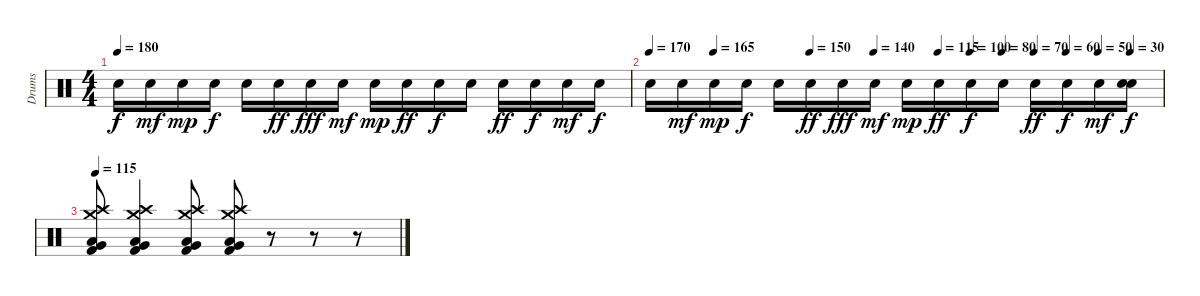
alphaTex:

\track ("Drums" "Drums") {instrument percussion}
\staff {score}
\articulation defaults
\ts (4 4)
\tempo 180
\clef neutral
\ks c "Snare (hit) 2".16{dy f} "Snare (hit) 2".16{dy mf} "Snare (hit) 2".16{dy mp} "Snare (hit) 2".16{dy f} "Snare (hit) 2".16 "Snare (hit) 2".16{dy ff} "Snare (hit) 2".16{dy fff} "Snare (hit) 2".16{dy mf} "Snare (hit) 2".16{dy mp} "Snare (hit) 2".16{dy ff} "Snare (hit) 2".16{dy f} "Snare (hit) 2".16 "Snare (hit) 2".16{dy ff} "Snare (hit) 2".16{dy f} "Snare (hit) 2".16{dy mf} "Snare (hit) 2".16{dy f}
|
\tempo 170
\tempo (165 0.125)
\tempo (150 0.3125)
\tempo (140 0.4375)
\tempo (115 0.5625)
\tempo (100 0.625)
\tempo (80 0.6875)
\tempo (70 0.75)
\tempo (60 0.8125)
\tempo (50 0.875)
\tempo (30 0.9375)
"Snare (hit) 2".16 "Snare (hit) 2".16{dy mf} "Snare (hit) 2".16{dy mp} "Snare (hit) 2".16{dy f} "Snare (hit) 2".16 "Snare (hit) 2".16{dy ff} "Snare (hit) 2".16{dy fff} "Snare (hit) 2".16{dy mf} "Snare (hit) 2".16{dy mp} "Snare (hit) 2".16{dy ff} "Snare (hit) 2".16{dy f} "Snare (hit) 2".16 "Snare (hit) 2".16{dy ff} "Snare (hit) 2".16{dy f} "Snare (hit) 2".16{dy mf} ("Snare (hit) 2" "Snare (hit) 2").16{dy f} |
\tempo 115
("Very Low Tom (hit)" "Crash high (hit)" "Crash medium (hit)" "Kick (hit) 2" "Low Floor Tom (hit)").8 ("Very Low Tom (hit)" "Crash high (hit)" "Crash medium (hit)" "Kick (hit) 2" "Low Floor Tom (hit)").4 ("Very Low Tom (hit)" "Crash high (hit)" "Crash medium (hit)" "Kick (hit) 2" "Low Floor Tom (hit)").8 ("Very Low Tom (hit)" "Crash high (hit)" "Crash medium (hit)" "Kick (hit) 2" "Low Floor Tom (hit)").8 r.8 r.8 r.8
